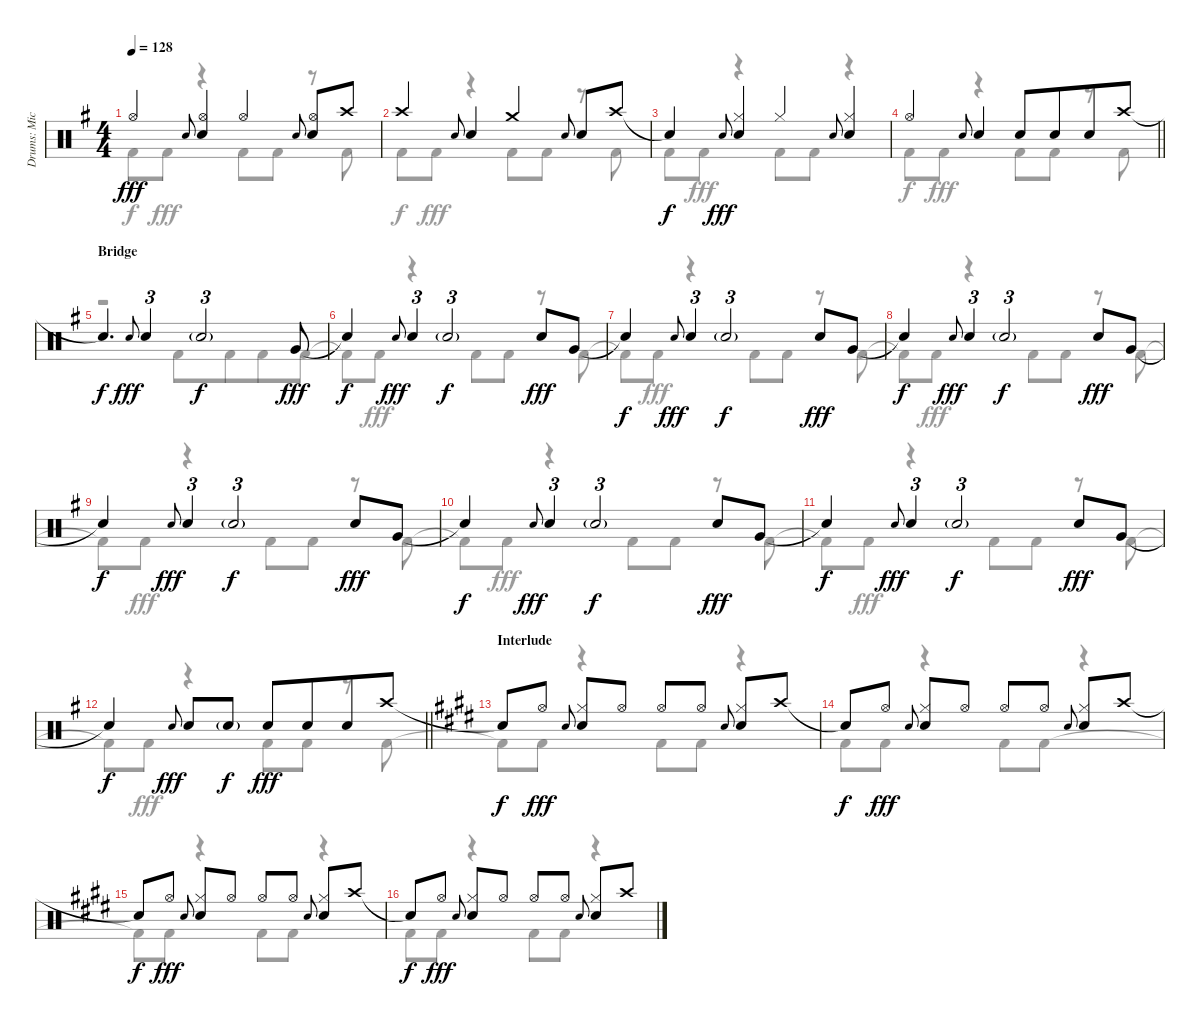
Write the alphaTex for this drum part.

\track ("Drums: Mick" "Drums: Mic") {instrument percussion}
\staff {score}
\articulation defaults
\voice
\ts (4 4)
\tempo 128
\clef neutral
\ks g "Hi-Hat (open)".4{dy fff} "Electric Snare (hit)".8{gr onbeat}
("Hi-Hat (open)" "Snare (hit) 2").4 "Hi-Hat (open)".4 "Electric Snare (hit)".8{gr onbeat} ("Hi-Hat (open)" "Snare (hit) 2").8 "Crash high (hit)".8 |
"Crash high (hit)".4 "Electric Snare (hit)".8{gr onbeat} "Snare (hit) 2".4 "Crash medium (hit)".4 "Electric Snare (hit)".8{gr onbeat} "Snare (hit) 2".8 "Crash high (hit)".8 |
"Snare (hit)"{t}.4{dy f} "Electric Snare (hit)".8{gr onbeat dy fff} ("Hi-Hat (closed)" "Snare (hit) 2").4 "Hi-Hat (closed)".4 "Electric Snare (hit)".8{gr onbeat} ("Hi-Hat (closed)" "Snare (hit) 2").4 |
\barLineRight lightlight "Hi-Hat (open)".4 "Electric Snare (hit)".8{gr onbeat} "Snare (hit) 2".4 "Snare (hit) 2".8 "Snare (hit) 2".8{beam merge} "Snare (hit) 2".8 "Crash high (hit)".8
|
\section ("" "Bridge")
"Snare (hit)"{t}.4{d dy f} "Electric Snare (hit)".8{gr onbeat dy fff} "Snare (hit) 2".4{tu (3 2)} "Electric Snare (hit)"{g}.2{tu (3 2) dy f} "Very Low Tom (hit)".8{dy fff} |
"Snare (hit)"{t}.4{dy f} "Electric Snare (hit)".8{gr onbeat dy fff} "Snare (hit) 2".4{tu (3 2)} "Electric Snare (hit)"{g}.2{tu (3 2) dy f} "Snare (hit) 2".8{dy fff} "Very Low Tom (hit)".8 |
"Snare (hit)"{t}.4{dy f} "Electric Snare (hit)".8{gr onbeat dy fff} "Snare (hit) 2".4{tu (3 2)} "Electric Snare (hit)"{g}.2{tu (3 2) dy f} "Snare (hit) 2".8{dy fff} "Very Low Tom (hit)".8 |
"Snare (hit)"{t}.4{dy f} "Electric Snare (hit)".8{gr onbeat dy fff} "Snare (hit) 2".4{tu (3 2)} "Electric Snare (hit)"{g}.2{tu (3 2) dy f} "Snare (hit) 2".8{dy fff} "Very Low Tom (hit)".8 |
"Snare (hit)"{t}.4{dy f} "Electric Snare (hit)".8{gr onbeat dy fff} "Snare (hit) 2".4{tu (3 2)} "Electric Snare (hit)"{g}.2{tu (3 2) dy f} "Snare (hit) 2".8{dy fff} "Very Low Tom (hit)".8 |
"Snare (hit)"{t}.4{dy f} "Electric Snare (hit)".8{gr onbeat dy fff} "Snare (hit) 2".4{tu (3 2)} "Electric Snare (hit)"{g}.2{tu (3 2) dy f} "Snare (hit) 2".8{dy fff} "Very Low Tom (hit)".8 |
"Snare (hit)"{t}.4{dy f} "Electric Snare (hit)".8{gr onbeat dy fff} "Snare (hit) 2".4{tu (3 2)} "Electric Snare (hit)"{g}.2{tu (3 2) dy f} "Snare (hit) 2".8{dy fff} "Very Low Tom (hit)".8 |
\barLineRight lightlight "Snare (hit)"{t}.4{dy f} "Electric Snare (hit)".8{gr onbeat dy fff} "Snare (hit) 2".8 "Electric Snare (hit)"{g}.8{dy f} "Snare (hit) 2".8{dy fff} "Snare (hit) 2".8{beam merge} "Snare (hit) 2".8 "Crash high (hit)".8
|
\section ("" "Interlude")
\ks e "Snare (hit)"{t}.8{dy f} "Hi-Hat (open)".8{dy fff} "Electric Snare (hit)".8{gr onbeat beam merge}
("Hi-Hat (closed)" "Snare (hit) 2").8 "Hi-Hat (open)".8 "Hi-Hat (open)".8 "Hi-Hat (open)".8 "Electric Snare (hit)".8{gr onbeat beam merge} ("Hi-Hat (closed)" "Snare (hit) 2").8 "Crash high (hit)".8 |
"Snare (hit)"{t}.8{dy f} "Hi-Hat (open)".8{dy fff} "Electric Snare (hit)".8{gr onbeat beam merge} ("Hi-Hat (closed)" "Snare (hit) 2").8 "Hi-Hat (open)".8 "Hi-Hat (open)".8 "Hi-Hat (open)".8 "Electric Snare (hit)".8{gr onbeat beam merge} ("Hi-Hat (closed)" "Snare (hit) 2").8 "Crash high (hit)".8 |
"Snare (hit)"{t}.8{dy f} "Hi-Hat (open)".8{dy fff} "Electric Snare (hit)".8{gr onbeat beam merge} ("Hi-Hat (closed)" "Snare (hit) 2").8 "Hi-Hat (open)".8 "Hi-Hat (open)".8 "Hi-Hat (open)".8 "Electric Snare (hit)".8{gr onbeat beam merge} ("Hi-Hat (closed)" "Snare (hit) 2").8 "Crash high (hit)".8 |
"Snare (hit)"{t}.8{dy f} "Hi-Hat (open)".8{dy fff} "Electric Snare (hit)".8{gr onbeat beam merge} ("Hi-Hat (closed)" "Snare (hit) 2").8 "Hi-Hat (open)".8 "Hi-Hat (open)".8 "Hi-Hat (open)".8 "Electric Snare (hit)".8{gr onbeat beam merge} ("Hi-Hat (closed)" "Snare (hit) 2").8 "Crash high (hit)".8
\voice
\clef neutral
\ottava regular
\simile none
\ks g "Kick (hit) 2".8{dy f} "Kick (hit) 2".8{dy fff}
r.4 "Kick (hit) 2".8 "Kick (hit) 2".8 r.8 "Kick (hit) 2".8 |
"Kick (hit) 2".8{dy f} "Kick (hit) 2".8{dy fff} r.4 "Kick (hit) 2".8 "Kick (hit) 2".8 r.8 "Kick (hit) 2".8 |
"Kick (hit) 2".8{dy f} "Kick (hit) 2".8{dy fff} r.4 "Kick (hit) 2".8 "Kick (hit) 2".8 r.4 |
\barLineRight lightlight "Kick (hit) 2".8{dy f} "Kick (hit) 2".8{dy fff}
r.4 "Kick (hit) 2".8 "Kick (hit) 2".8 r.8 "Kick (hit) 2".8 |
r.2 "Kick (hit) 2".8 "Kick (hit) 2".8{beam merge} "Kick (hit) 2".8 "Kick (hit) 2".8 |
"Kick (hit) 2"{t}.8{dy f} "Kick (hit) 2".8{dy fff} r.4 "Kick (hit) 2".8 "Kick (hit) 2".8 r.8 "Kick (hit) 2".8 |
"Kick (hit) 2"{t}.8{dy f} "Kick (hit) 2".8{dy fff} r.4 "Kick (hit) 2".8 "Kick (hit) 2".8 r.8 "Kick (hit) 2".8 |
"Kick (hit) 2"{t}.8{dy f} "Kick (hit) 2".8{dy fff} r.4 "Kick (hit) 2".8 "Kick (hit) 2".8 r.8 "Kick (hit) 2".8 |
"Kick (hit) 2"{t}.8{dy f} "Kick (hit) 2".8{dy fff} r.4 "Kick (hit) 2".8 "Kick (hit) 2".8 r.8 "Kick (hit) 2".8 |
"Kick (hit) 2"{t}.8{dy f} "Kick (hit) 2".8{dy fff} r.4 "Kick (hit) 2".8 "Kick (hit) 2".8 r.8 "Kick (hit) 2".8 |
"Kick (hit) 2"{t}.8{dy f} "Kick (hit) 2".8{dy fff} r.4 "Kick (hit) 2".8 "Kick (hit) 2".8 r.8 "Kick (hit) 2".8 |
\barLineRight lightlight "Kick (hit) 2"{t}.8{dy f} "Kick (hit) 2".8{dy fff}
r.4 "Kick (hit) 2".8 "Kick (hit) 2".8 r.8 "Kick (hit) 2".8 |
\ks e "Kick (hit) 2"{t}.8{dy f} "Kick (hit) 2".8{dy fff}
r.4 "Kick (hit) 2".8 "Kick (hit) 2".8 r.4 |
"Kick (hit) 2".8{dy f} "Kick (hit) 2".8{dy fff} r.4 "Kick (hit) 2".8 "Kick (hit) 2".8 r.4 |
"Kick (hit) 2"{t}.8{dy f} "Kick (hit) 2".8{dy fff} r.4 "Kick (hit) 2".8 "Kick (hit) 2".8 r.4 |
"Kick (hit) 2".8{dy f} "Kick (hit) 2".8{dy fff} r.4 "Kick (hit) 2".8 "Kick (hit) 2".8 r.4
